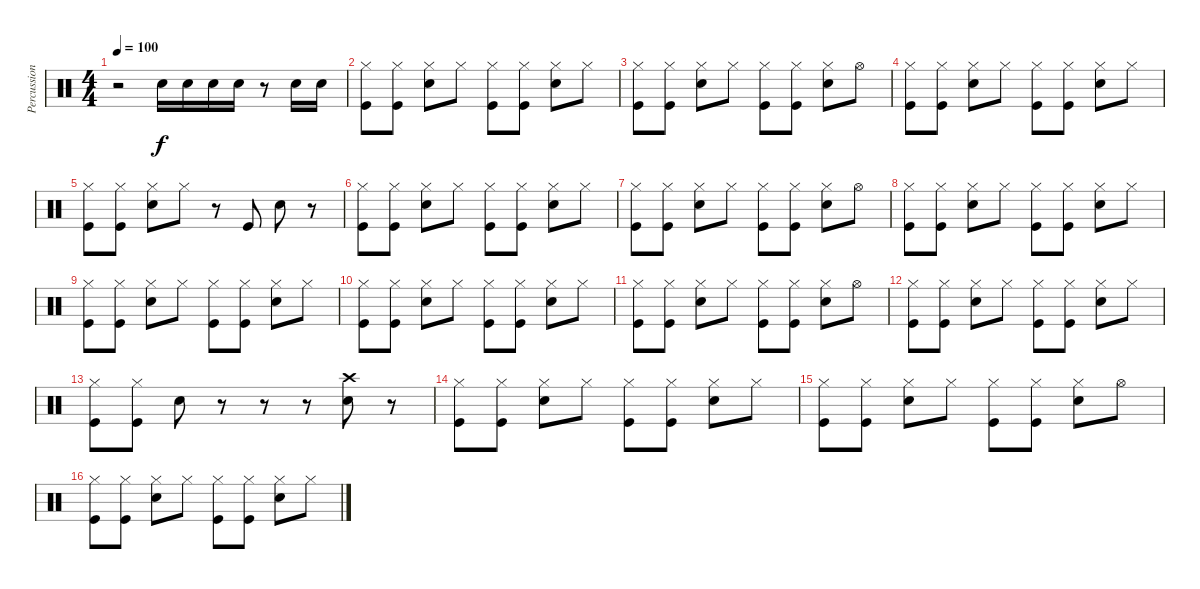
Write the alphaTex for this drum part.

\track ("Percussions" "Percussion") {instrument percussion}
\staff {score}
\articulation defaults
\ts (4 4)
\tempo 100
\clef neutral
\ks c
r.2{dy f} "Electric Snare (hit)".16 "Electric Snare (hit)".16 "Electric Snare (hit)".16 "Electric Snare (hit)".16 r.8 "Electric Snare (hit)".16 "Electric Snare (hit)".16 |
("Hi-Hat (closed)" "Kick (hit)").8 ("Hi-Hat (closed)" "Kick (hit)").8 ("Hi-Hat (closed)" "Electric Snare (hit)").8 "Hi-Hat (closed)".8 ("Hi-Hat (closed)" "Kick (hit)").8 ("Hi-Hat (closed)" "Kick (hit)").8 ("Hi-Hat (closed)" "Electric Snare (hit)").8 "Hi-Hat (closed)".8 |
("Hi-Hat (closed)" "Kick (hit)").8 ("Hi-Hat (closed)" "Kick (hit)").8 ("Hi-Hat (closed)" "Electric Snare (hit)").8 "Hi-Hat (closed)".8 ("Hi-Hat (closed)" "Kick (hit)").8 ("Hi-Hat (closed)" "Kick (hit)").8 ("Hi-Hat (closed)" "Electric Snare (hit)").8 "Hi-Hat (open)".8 |
("Hi-Hat (closed)" "Kick (hit)").8 ("Hi-Hat (closed)" "Kick (hit)").8 ("Hi-Hat (closed)" "Electric Snare (hit)").8 "Hi-Hat (closed)".8 ("Hi-Hat (closed)" "Kick (hit)").8 ("Hi-Hat (closed)" "Kick (hit)").8 ("Hi-Hat (closed)" "Electric Snare (hit)").8 "Hi-Hat (closed)".8 |
("Hi-Hat (closed)" "Kick (hit)").8 ("Hi-Hat (closed)" "Kick (hit)").8 ("Hi-Hat (closed)" "Electric Snare (hit)").8 "Hi-Hat (closed)".8 r.8 "Kick (hit)".8 "Electric Snare (hit)".8{volume 16} r.8 |
("Hi-Hat (closed)" "Kick (hit)").8 ("Hi-Hat (closed)" "Kick (hit)").8 ("Hi-Hat (closed)" "Electric Snare (hit)").8 "Hi-Hat (closed)".8 ("Hi-Hat (closed)" "Kick (hit)").8 ("Hi-Hat (closed)" "Kick (hit)").8 ("Hi-Hat (closed)" "Electric Snare (hit)").8 "Hi-Hat (closed)".8 |
("Hi-Hat (closed)" "Kick (hit)").8 ("Hi-Hat (closed)" "Kick (hit)").8 ("Hi-Hat (closed)" "Electric Snare (hit)").8 "Hi-Hat (closed)".8 ("Hi-Hat (closed)" "Kick (hit)").8 ("Hi-Hat (closed)" "Kick (hit)").8 ("Hi-Hat (closed)" "Electric Snare (hit)").8 "Hi-Hat (open)".8 |
("Hi-Hat (closed)" "Kick (hit)").8 ("Hi-Hat (closed)" "Kick (hit)").8 ("Hi-Hat (closed)" "Electric Snare (hit)").8 "Hi-Hat (closed)".8 ("Hi-Hat (closed)" "Kick (hit)").8 ("Hi-Hat (closed)" "Kick (hit)").8 ("Hi-Hat (closed)" "Electric Snare (hit)").8 "Hi-Hat (closed)".8 |
("Hi-Hat (closed)" "Kick (hit)").8 ("Hi-Hat (closed)" "Kick (hit)").8 ("Hi-Hat (closed)" "Electric Snare (hit)").8 "Hi-Hat (closed)".8 ("Hi-Hat (closed)" "Kick (hit)").8 ("Hi-Hat (closed)" "Kick (hit)").8 ("Hi-Hat (closed)" "Electric Snare (hit)").8{volume 16} "Hi-Hat (closed)".8 |
("Hi-Hat (closed)" "Kick (hit)").8 ("Hi-Hat (closed)" "Kick (hit)").8 ("Hi-Hat (closed)" "Electric Snare (hit)").8 "Hi-Hat (closed)".8 ("Hi-Hat (closed)" "Kick (hit)").8 ("Hi-Hat (closed)" "Kick (hit)").8 ("Hi-Hat (closed)" "Electric Snare (hit)").8 "Hi-Hat (closed)".8 |
("Hi-Hat (closed)" "Kick (hit)").8 ("Hi-Hat (closed)" "Kick (hit)").8 ("Hi-Hat (closed)" "Electric Snare (hit)").8 "Hi-Hat (closed)".8 ("Hi-Hat (closed)" "Kick (hit)").8 ("Hi-Hat (closed)" "Kick (hit)").8 ("Hi-Hat (closed)" "Electric Snare (hit)").8 "Hi-Hat (open)".8 |
("Hi-Hat (closed)" "Kick (hit)").8 ("Hi-Hat (closed)" "Kick (hit)").8 ("Hi-Hat (closed)" "Electric Snare (hit)").8 "Hi-Hat (closed)".8 ("Hi-Hat (closed)" "Kick (hit)").8 ("Hi-Hat (closed)" "Kick (hit)").8 ("Hi-Hat (closed)" "Electric Snare (hit)").8 "Hi-Hat (closed)".8 |
("Hi-Hat (closed)" "Kick (hit)").8 ("Hi-Hat (closed)" "Kick (hit)").8 "Electric Snare (hit)".8 r.8 r.8 r.8 ("Crash high (hit)" "Electric Snare (hit)").8{volume 16} r.8 |
("Hi-Hat (closed)" "Kick (hit)").8 ("Hi-Hat (closed)" "Kick (hit)").8 ("Hi-Hat (closed)" "Electric Snare (hit)").8 "Hi-Hat (closed)".8 ("Hi-Hat (closed)" "Kick (hit)").8 ("Hi-Hat (closed)" "Kick (hit)").8 ("Hi-Hat (closed)" "Electric Snare (hit)").8 "Hi-Hat (closed)".8 |
("Hi-Hat (closed)" "Kick (hit)").8 ("Hi-Hat (closed)" "Kick (hit)").8 ("Hi-Hat (closed)" "Electric Snare (hit)").8 "Hi-Hat (closed)".8 ("Hi-Hat (closed)" "Kick (hit)").8 ("Hi-Hat (closed)" "Kick (hit)").8 ("Hi-Hat (closed)" "Electric Snare (hit)").8 "Hi-Hat (open)".8 |
("Hi-Hat (closed)" "Kick (hit)").8 ("Hi-Hat (closed)" "Kick (hit)").8 ("Hi-Hat (closed)" "Electric Snare (hit)").8 "Hi-Hat (closed)".8 ("Hi-Hat (closed)" "Kick (hit)").8 ("Hi-Hat (closed)" "Kick (hit)").8 ("Hi-Hat (closed)" "Electric Snare (hit)").8 "Hi-Hat (closed)".8
